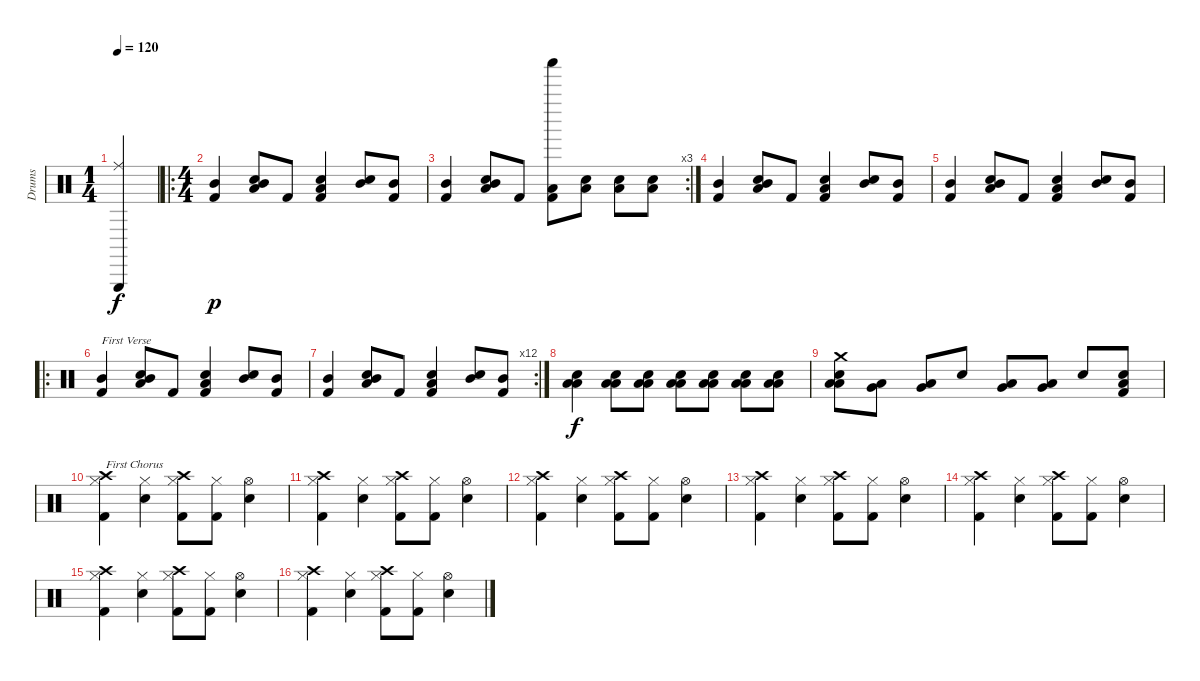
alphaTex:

\track ("Drums" "Drums") {instrument percussion}
\staff {score}
\articulation defaults
\ts (1 4)
\tempo 120
\clef neutral
\ks c
("Ride (middle)" "Triangle (hit)").4{dy f} |
\ro
\ts (4 4)
("Mid Tom (hit)" "Kick (hit) 2").4{dy p} ("Low Floor Tom (hit)" "Snare (hit) 2" "Mid Tom (hit)").8 "Kick (hit) 2".8 ("Snare (hit)" "Low Floor Tom (hit)" "Kick (hit) 2").4 ("Snare (hit) 2" "Mid Tom (hit)").8 ("Mid Tom (hit)" "Kick (hit) 2").8 |
\rc 3
("Mid Tom (hit)" "Kick (hit) 2").4 ("Low Floor Tom (hit)" "Snare (hit) 2" "Mid Tom (hit)").8 "Kick (hit) 2".8 ("Shaker (hit)" "Low Floor Tom (hit)" "Kick (hit) 2").8 ("Low Tom (hit)" "Electric Snare (hit)").8 ("Low Tom (hit)" "Electric Snare (hit)").8 ("Low Tom (hit)" "Electric Snare (hit)").8 |
("Mid Tom (hit)" "Kick (hit) 2").4 ("Low Floor Tom (hit)" "Snare (hit) 2" "Mid Tom (hit)").8 "Kick (hit) 2".8 ("Snare (hit)" "Low Floor Tom (hit)" "Kick (hit) 2").4 ("Snare (hit) 2" "Mid Tom (hit)").8 ("Mid Tom (hit)" "Kick (hit) 2").8 |
("Mid Tom (hit)" "Kick (hit) 2").4 ("Low Floor Tom (hit)" "Snare (hit) 2" "Mid Tom (hit)").8 "Kick (hit) 2".8 ("Snare (hit)" "Low Floor Tom (hit)" "Kick (hit) 2").4 ("Snare (hit) 2" "Mid Tom (hit)").8 ("Mid Tom (hit)" "Kick (hit) 2").8 |
\ro
("Mid Tom (hit)" "Kick (hit) 2").4{txt "First Verse"} ("Low Floor Tom (hit)" "Snare (hit) 2" "Mid Tom (hit)").8 "Kick (hit) 2".8 ("Snare (hit)" "Low Floor Tom (hit)" "Kick (hit) 2").4 ("Snare (hit) 2" "Mid Tom (hit)").8 ("Mid Tom (hit)" "Kick (hit) 2").8 |
\rc 12
("Mid Tom (hit)" "Kick (hit) 2").4 ("Low Floor Tom (hit)" "Snare (hit) 2" "Mid Tom (hit)").8 "Kick (hit) 2".8 ("Snare (hit)" "Low Floor Tom (hit)" "Kick (hit) 2").4 ("Snare (hit) 2" "Mid Tom (hit)").8 ("Mid Tom (hit)" "Kick (hit) 2").8 |
("Electric Snare (hit)" "Low Tom (hit)" "Low Floor Tom (hit)").4{dy f} ("Electric Snare (hit)" "Low Tom (hit)" "Low Floor Tom (hit)").8 ("Electric Snare (hit)" "Low Tom (hit)" "Low Floor Tom (hit)").8 ("Electric Snare (hit)" "Low Tom (hit)" "Low Floor Tom (hit)").8 ("Electric Snare (hit)" "Low Tom (hit)" "Low Floor Tom (hit)").8 ("Electric Snare (hit)" "Low Tom (hit)" "Low Floor Tom (hit)").8 ("Electric Snare (hit)" "Low Tom (hit)" "Low Floor Tom (hit)").8 |
("Crash medium (hit)" "Electric Snare (hit)" "Low Tom (hit)" "Low Floor Tom (hit)").8 ("Very Low Tom (hit)" "Low Tom (hit)").8 ("Very Low Tom (hit)" "Low Tom (hit)").8 "Electric Snare (hit)".8 ("Very Low Tom (hit)" "Low Floor Tom (hit)").8 ("Very Low Tom (hit)" "Low Floor Tom (hit)").8 "Electric Snare (hit)".8 ("Electric Snare (hit)" "Low Floor Tom (hit)" "Kick (hit) 2").8 |
("Crash high (hit)" "Hi-Hat (closed)" "Kick (hit) 2").4{txt "First Chorus"} ("Hi-Hat (closed)" "Electric Snare (hit)").4 ("Crash high (hit)" "Hi-Hat (closed)" "Kick (hit) 2").8 ("Hi-Hat (closed)" "Kick (hit) 2").8 ("Hi-Hat (open)" "Electric Snare (hit)").4 |
("Crash high (hit)" "Hi-Hat (closed)" "Kick (hit) 2").4 ("Hi-Hat (closed)" "Electric Snare (hit)").4 ("Crash high (hit)" "Hi-Hat (closed)" "Kick (hit) 2").8 ("Hi-Hat (closed)" "Kick (hit) 2").8 ("Hi-Hat (open)" "Electric Snare (hit)").4 |
("Crash high (hit)" "Hi-Hat (closed)" "Kick (hit) 2").4 ("Hi-Hat (closed)" "Electric Snare (hit)").4 ("Crash high (hit)" "Hi-Hat (closed)" "Kick (hit) 2").8 ("Hi-Hat (closed)" "Kick (hit) 2").8 ("Hi-Hat (open)" "Electric Snare (hit)").4 |
("Crash high (hit)" "Hi-Hat (closed)" "Kick (hit) 2").4 ("Hi-Hat (closed)" "Electric Snare (hit)").4 ("Crash high (hit)" "Hi-Hat (closed)" "Kick (hit) 2").8 ("Hi-Hat (closed)" "Kick (hit) 2").8 ("Hi-Hat (open)" "Electric Snare (hit)").4 |
("Crash high (hit)" "Hi-Hat (closed)" "Kick (hit) 2").4 ("Hi-Hat (closed)" "Electric Snare (hit)").4 ("Crash high (hit)" "Hi-Hat (closed)" "Kick (hit) 2").8 ("Hi-Hat (closed)" "Kick (hit) 2").8 ("Hi-Hat (open)" "Electric Snare (hit)").4 |
("Crash high (hit)" "Hi-Hat (closed)" "Kick (hit) 2").4 ("Hi-Hat (closed)" "Electric Snare (hit)").4 ("Crash high (hit)" "Hi-Hat (closed)" "Kick (hit) 2").8 ("Hi-Hat (closed)" "Kick (hit) 2").8 ("Hi-Hat (open)" "Electric Snare (hit)").4 |
("Crash high (hit)" "Hi-Hat (closed)" "Kick (hit) 2").4 ("Hi-Hat (closed)" "Electric Snare (hit)").4 ("Crash high (hit)" "Hi-Hat (closed)" "Kick (hit) 2").8 ("Hi-Hat (closed)" "Kick (hit) 2").8 ("Hi-Hat (open)" "Electric Snare (hit)").4
